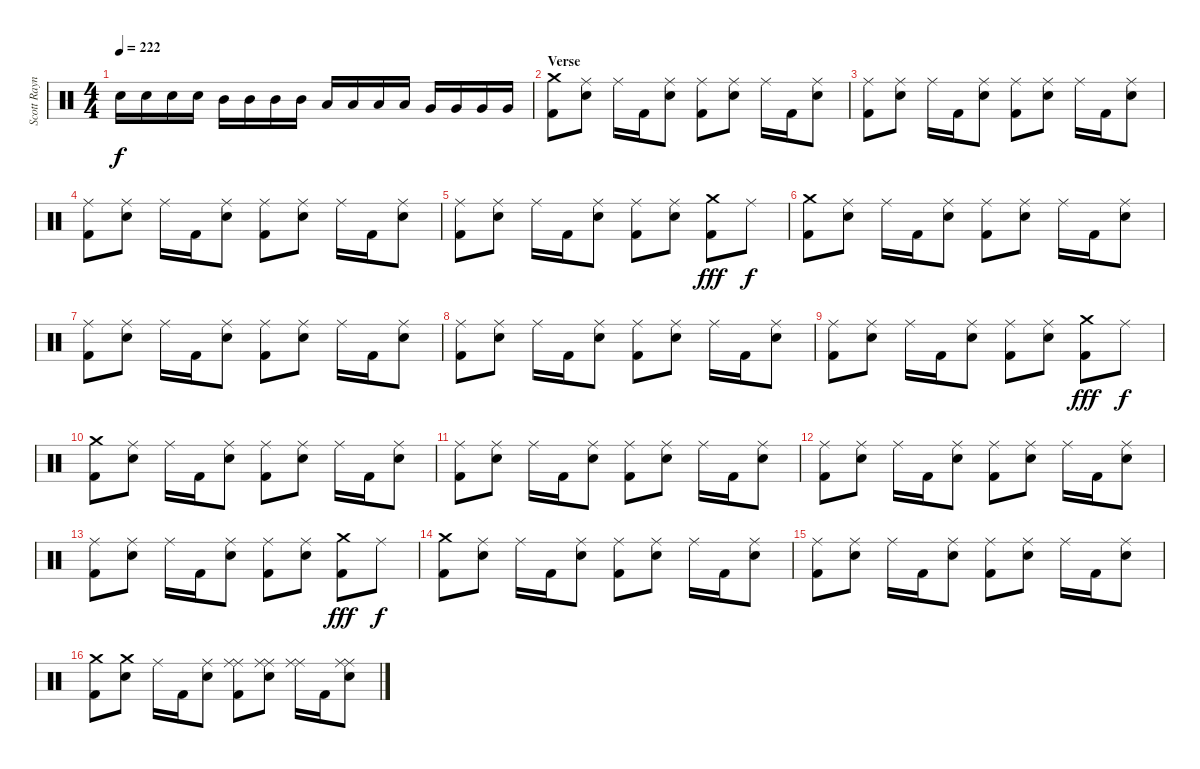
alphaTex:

\track ("Scott Raynor - Bateria/Drums" "Scott Rayn") {instrument percussion}
\staff {score}
\articulation defaults
\ts (4 4)
\tempo 222
\clef neutral
\ks c "Electric Snare (hit)".16{dy f} "Electric Snare (hit)".16 "Electric Snare (hit)".16 "Electric Snare (hit)".16 "Mid Tom (hit)".16 "Mid Tom (hit)".16 "Mid Tom (hit)".16 "Mid Tom (hit)".16 "Low Tom (hit)".16 "Low Tom (hit)".16 "Low Tom (hit)".16 "Low Tom (hit)".16 "Very Low Tom (hit)".16 "Very Low Tom (hit)".16 "Very Low Tom (hit)".16 "Very Low Tom (hit)".16
|
\section ("" "Verse")
("Crash medium (hit)" "Kick (hit) 2").8 ("Ride (middle)" "Electric Snare (hit)").8 "Ride (middle)".16 "Kick (hit) 2".16 ("Ride (middle)" "Electric Snare (hit)").8 ("Ride (middle)" "Kick (hit) 2").8 ("Ride (middle)" "Electric Snare (hit)").8 "Ride (middle)".16 "Kick (hit) 2".16 ("Ride (middle)" "Electric Snare (hit)").8 |
("Ride (middle)" "Kick (hit) 2").8 ("Ride (middle)" "Electric Snare (hit)").8 "Ride (middle)".16 "Kick (hit) 2".16 ("Ride (middle)" "Electric Snare (hit)").8 ("Ride (middle)" "Kick (hit) 2").8 ("Ride (middle)" "Electric Snare (hit)").8 "Ride (middle)".16 "Kick (hit) 2".16 ("Ride (middle)" "Electric Snare (hit)").8 |
("Ride (middle)" "Kick (hit) 2").8 ("Ride (middle)" "Electric Snare (hit)").8 "Ride (middle)".16 "Kick (hit) 2".16 ("Ride (middle)" "Electric Snare (hit)").8 ("Ride (middle)" "Kick (hit) 2").8 ("Ride (middle)" "Electric Snare (hit)").8 "Ride (middle)".16 "Kick (hit) 2".16 ("Ride (middle)" "Electric Snare (hit)").8 |
("Ride (middle)" "Kick (hit) 2").8 ("Ride (middle)" "Electric Snare (hit)").8 "Ride (middle)".16 "Kick (hit) 2".16 ("Ride (middle)" "Electric Snare (hit)").8 ("Ride (middle)" "Kick (hit) 2").8 ("Ride (middle)" "Electric Snare (hit)").8 ("Crash medium (hit)" "Kick (hit) 2").8{dy fff} "Ride (middle)".8{dy f} |
("Crash medium (hit)" "Kick (hit) 2").8 ("Ride (middle)" "Electric Snare (hit)").8 "Ride (middle)".16 "Kick (hit) 2".16 ("Ride (middle)" "Electric Snare (hit)").8 ("Ride (middle)" "Kick (hit) 2").8 ("Ride (middle)" "Electric Snare (hit)").8 "Ride (middle)".16 "Kick (hit) 2".16 ("Ride (middle)" "Electric Snare (hit)").8 |
("Ride (middle)" "Kick (hit) 2").8 ("Ride (middle)" "Electric Snare (hit)").8 "Ride (middle)".16 "Kick (hit) 2".16 ("Ride (middle)" "Electric Snare (hit)").8 ("Ride (middle)" "Kick (hit) 2").8 ("Ride (middle)" "Electric Snare (hit)").8 "Ride (middle)".16 "Kick (hit) 2".16 ("Ride (middle)" "Electric Snare (hit)").8 |
("Ride (middle)" "Kick (hit) 2").8 ("Ride (middle)" "Electric Snare (hit)").8 "Ride (middle)".16 "Kick (hit) 2".16 ("Ride (middle)" "Electric Snare (hit)").8 ("Ride (middle)" "Kick (hit) 2").8 ("Ride (middle)" "Electric Snare (hit)").8 "Ride (middle)".16 "Kick (hit) 2".16 ("Ride (middle)" "Electric Snare (hit)").8 |
("Ride (middle)" "Kick (hit) 2").8 ("Ride (middle)" "Electric Snare (hit)").8 "Ride (middle)".16 "Kick (hit) 2".16 ("Ride (middle)" "Electric Snare (hit)").8 ("Ride (middle)" "Kick (hit) 2").8 ("Ride (middle)" "Electric Snare (hit)").8 ("Crash medium (hit)" "Kick (hit) 2").8{dy fff} "Ride (middle)".8{dy f} |
("Crash medium (hit)" "Kick (hit) 2").8 ("Ride (middle)" "Electric Snare (hit)").8 "Ride (middle)".16 "Kick (hit) 2".16 ("Ride (middle)" "Electric Snare (hit)").8 ("Ride (middle)" "Kick (hit) 2").8 ("Ride (middle)" "Electric Snare (hit)").8 "Ride (middle)".16 "Kick (hit) 2".16 ("Ride (middle)" "Electric Snare (hit)").8 |
("Ride (middle)" "Kick (hit) 2").8 ("Ride (middle)" "Electric Snare (hit)").8 "Ride (middle)".16 "Kick (hit) 2".16 ("Ride (middle)" "Electric Snare (hit)").8 ("Ride (middle)" "Kick (hit) 2").8 ("Ride (middle)" "Electric Snare (hit)").8 "Ride (middle)".16 "Kick (hit) 2".16 ("Ride (middle)" "Electric Snare (hit)").8 |
("Ride (middle)" "Kick (hit) 2").8 ("Ride (middle)" "Electric Snare (hit)").8 "Ride (middle)".16 "Kick (hit) 2".16 ("Ride (middle)" "Electric Snare (hit)").8 ("Ride (middle)" "Kick (hit) 2").8 ("Ride (middle)" "Electric Snare (hit)").8 "Ride (middle)".16 "Kick (hit) 2".16 ("Ride (middle)" "Electric Snare (hit)").8 |
("Ride (middle)" "Kick (hit) 2").8 ("Ride (middle)" "Electric Snare (hit)").8 "Ride (middle)".16 "Kick (hit) 2".16 ("Ride (middle)" "Electric Snare (hit)").8 ("Ride (middle)" "Kick (hit) 2").8 ("Ride (middle)" "Electric Snare (hit)").8 ("Crash medium (hit)" "Kick (hit) 2").8{dy fff} "Ride (middle)".8{dy f} |
("Crash medium (hit)" "Kick (hit) 2").8 ("Ride (middle)" "Electric Snare (hit)").8 "Ride (middle)".16 "Kick (hit) 2".16 ("Ride (middle)" "Electric Snare (hit)").8 ("Ride (middle)" "Kick (hit) 2").8 ("Ride (middle)" "Electric Snare (hit)").8 "Ride (middle)".16 "Kick (hit) 2".16 ("Ride (middle)" "Electric Snare (hit)").8 |
("Ride (middle)" "Kick (hit) 2").8 ("Ride (middle)" "Electric Snare (hit)").8 "Ride (middle)".16 "Kick (hit) 2".16 ("Ride (middle)" "Electric Snare (hit)").8 ("Ride (middle)" "Kick (hit) 2").8 ("Ride (middle)" "Electric Snare (hit)").8 "Ride (middle)".16 "Kick (hit) 2".16 ("Ride (middle)" "Electric Snare (hit)").8 |
("Crash medium (hit)" "Kick (hit) 2").8 ("Crash medium (hit)" "Electric Snare (hit)").8 "Ride (middle)".16 "Kick (hit) 2".16 ("Ride (middle)" "Electric Snare (hit)").8 ("Ride (middle)" "Ride (middle)" "Kick (hit) 2").8 ("Ride (middle)" "Ride (middle)" "Electric Snare (hit)").8 ("Ride (middle)" "Ride (middle)").16 "Kick (hit) 2".16 ("Ride (middle)" "Ride (middle)" "Electric Snare (hit)").8
